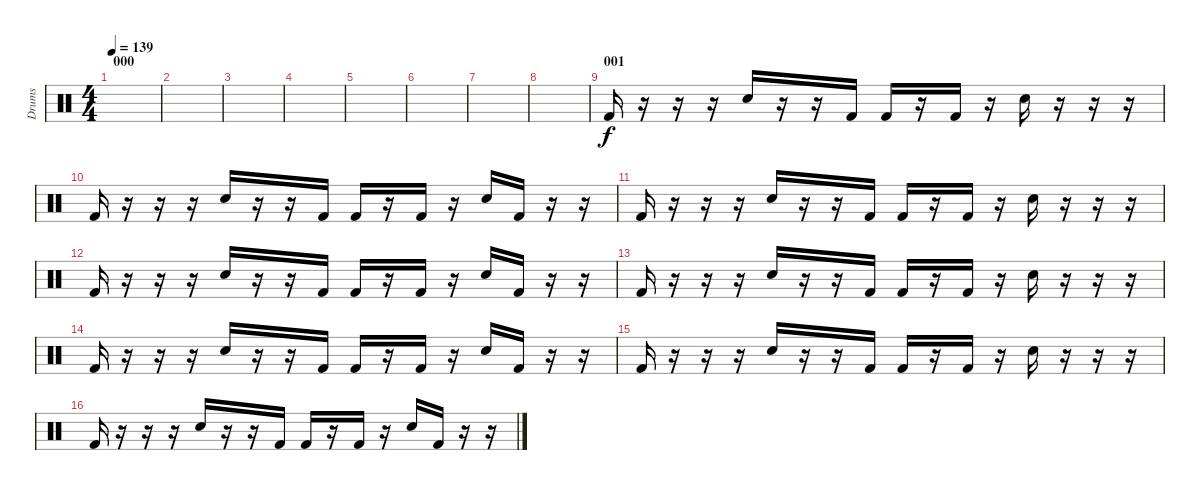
\track ("Drums" "Drums") {instrument percussion}
\staff {score}
\articulation defaults
\ts (4 4)
\section ("" "000")
\tempo 139
\clef neutral
\ks c
|
|
|
|
|
|
|
|
\section ("" "001")
"Kick (hit) 2".16 r.16 r.16 r.16 "Electric Snare (hit)".16 r.16 r.16 "Kick (hit) 2".16 "Kick (hit) 2".16 r.16 "Kick (hit) 2".16 r.16 "Electric Snare (hit)".16 r.16 r.16 r.16 |
"Kick (hit) 2".16 r.16 r.16 r.16 "Electric Snare (hit)".16 r.16 r.16 "Kick (hit) 2".16 "Kick (hit) 2".16 r.16 "Kick (hit) 2".16 r.16 "Electric Snare (hit)".16 "Kick (hit) 2".16 r.16 r.16 |
"Kick (hit) 2".16 r.16 r.16 r.16 "Electric Snare (hit)".16 r.16 r.16 "Kick (hit) 2".16 "Kick (hit) 2".16 r.16 "Kick (hit) 2".16 r.16 "Electric Snare (hit)".16 r.16 r.16 r.16 |
"Kick (hit) 2".16 r.16 r.16 r.16 "Electric Snare (hit)".16 r.16 r.16 "Kick (hit) 2".16 "Kick (hit) 2".16 r.16 "Kick (hit) 2".16 r.16 "Electric Snare (hit)".16 "Kick (hit) 2".16 r.16 r.16 |
"Kick (hit) 2".16 r.16 r.16 r.16 "Electric Snare (hit)".16 r.16 r.16 "Kick (hit) 2".16 "Kick (hit) 2".16 r.16 "Kick (hit) 2".16 r.16 "Electric Snare (hit)".16 r.16 r.16 r.16 |
"Kick (hit) 2".16 r.16 r.16 r.16 "Electric Snare (hit)".16 r.16 r.16 "Kick (hit) 2".16 "Kick (hit) 2".16 r.16 "Kick (hit) 2".16 r.16 "Electric Snare (hit)".16 "Kick (hit) 2".16 r.16 r.16 |
"Kick (hit) 2".16 r.16 r.16 r.16 "Electric Snare (hit)".16 r.16 r.16 "Kick (hit) 2".16 "Kick (hit) 2".16 r.16 "Kick (hit) 2".16 r.16 "Electric Snare (hit)".16 r.16 r.16 r.16 |
"Kick (hit) 2".16 r.16 r.16 r.16 "Electric Snare (hit)".16 r.16 r.16 "Kick (hit) 2".16 "Kick (hit) 2".16 r.16 "Kick (hit) 2".16 r.16 "Electric Snare (hit)".16 "Kick (hit) 2".16 r.16 r.16
